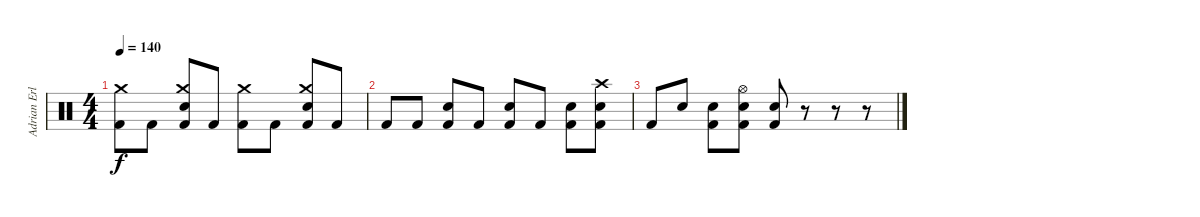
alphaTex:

\track ("Adrian Erlandsson" "Adrian Erl") {instrument percussion}
\staff {score}
\articulation defaults
\ts (4 4)
\tempo 140
\clef neutral
\ks c
("Kick (hit) 2" "Crash medium (hit)").8{dy f} "Kick (hit) 2".8 ("Kick (hit) 2" "Crash medium (hit)" "Electric Snare (hit)").8 "Kick (hit) 2".8 ("Kick (hit) 2" "Crash medium (hit)").8 "Kick (hit) 2".8 ("Kick (hit) 2" "Crash medium (hit)" "Electric Snare (hit)").8 "Kick (hit) 2".8 |
"Kick (hit) 2".8 "Kick (hit) 2".8 ("Kick (hit) 2" "Electric Snare (hit)").8 "Kick (hit) 2".8 ("Kick (hit) 2" "Electric Snare (hit)").8 "Kick (hit) 2".8 ("Kick (hit) 2" "Electric Snare (hit)").8 ("Kick (hit) 2" "Electric Snare (hit)" "Crash high (hit)").8 |
"Kick (hit) 2".8 "Snare (hit) 2".8 ("Kick (hit) 2" "Electric Snare (hit)").8 ("Kick (hit) 2" "Electric Snare (hit)" "Hi-Hat (open)").8 ("Kick (hit) 2" "Electric Snare (hit)").8 r.8 r.8 r.8
